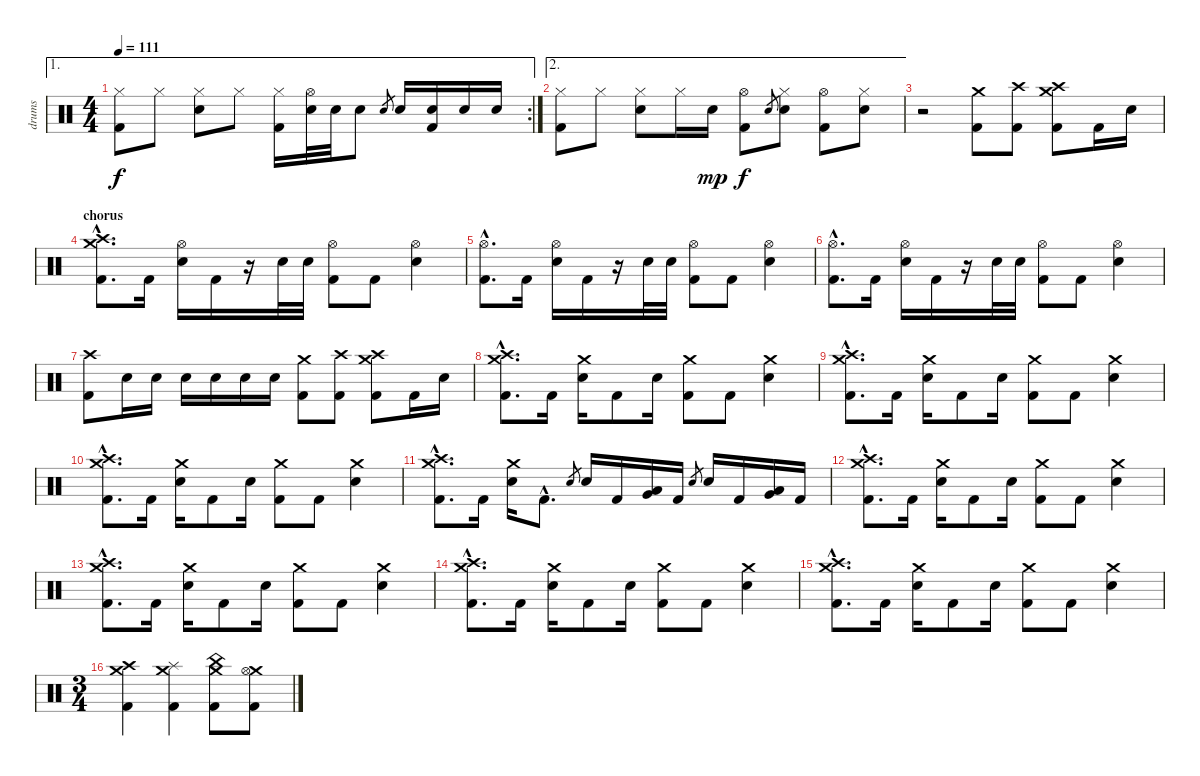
\track ("drums" "drums") {instrument percussion}
\staff {score}
\articulation defaults
\ae 1
\rc 2
\ts (4 4)
\tempo 111
\clef neutral
\ks c
("Hi-Hat (closed)" "Kick (hit) 2").8{dy f} "Hi-Hat (closed)".8 ("Hi-Hat (closed)" "Electric Snare (hit)").8 "Hi-Hat (closed)".8 ("Hi-Hat (closed)" "Kick (hit) 2").16 ("Hi-Hat (open)" "Electric Snare (hit)").32 "Electric Snare (hit)".32 "Electric Snare (hit)".8 "Electric Snare (hit)".8{gr} "Electric Snare (hit)".16 ("Electric Snare (hit)" "Kick (hit) 2").16 "Electric Snare (hit)".16 "Electric Snare (hit)".16 |
\ae 2
("Hi-Hat (closed)" "Kick (hit) 2").8 "Hi-Hat (closed)".8 ("Hi-Hat (closed)" "Electric Snare (hit)").8 "Hi-Hat (closed)".16 "Electric Snare (hit)".16{dy mp} ("Hi-Hat (open)" "Kick (hit) 2").8{dy f} "Electric Snare (hit)".8{gr} ("Hi-Hat (closed)" "Electric Snare (hit)").8 ("Hi-Hat (open)" "Kick (hit) 2").8 ("Hi-Hat (closed)" "Electric Snare (hit)").8 |
r.2 ("Crash medium (hit)" "Kick (hit) 2").8 ("Crash high (hit)" "Kick (hit) 2").8 ("Crash high (hit)" "Crash medium (hit)" "Kick (hit) 2").8 "Kick (hit) 2".16 "Electric Snare (hit)".16 |
\section ("" "chorus")
("Crash high (hit)"{hac} "Crash medium (hit)"{hac} "Kick (hit) 2"{hac}).8{d} "Kick (hit) 2".16 ("Hi-Hat (open)" "Electric Snare (hit)").16 "Kick (hit) 2".16 r.16 "Electric Snare (hit)".32 "Electric Snare (hit)".32 ("Hi-Hat (open)" "Kick (hit) 2").8 "Kick (hit) 2".8 ("Hi-Hat (open)" "Electric Snare (hit)").4 |
("Hi-Hat (open)"{hac} "Kick (hit) 2"{hac}).8{d} "Kick (hit) 2".16 ("Hi-Hat (open)" "Electric Snare (hit)").16 "Kick (hit) 2".16 r.16 "Electric Snare (hit)".32 "Electric Snare (hit)".32 ("Hi-Hat (open)" "Kick (hit) 2").8 "Kick (hit) 2".8 ("Hi-Hat (open)" "Electric Snare (hit)").4 |
("Hi-Hat (open)"{hac} "Kick (hit) 2"{hac}).8{d} "Kick (hit) 2".16 ("Hi-Hat (open)" "Electric Snare (hit)").16 "Kick (hit) 2".16 r.16 "Electric Snare (hit)".32 "Electric Snare (hit)".32 ("Hi-Hat (open)" "Kick (hit) 2").8 "Kick (hit) 2".8 ("Hi-Hat (open)" "Electric Snare (hit)").4 |
("Crash high (hit)" "Kick (hit) 2").8 "Electric Snare (hit)".16 "Electric Snare (hit)".16 "Electric Snare (hit)".16 "Electric Snare (hit)".16 "Electric Snare (hit)".16 "Electric Snare (hit)".16 ("Crash medium (hit)" "Kick (hit) 2").8 ("Crash high (hit)" "Kick (hit) 2").8 ("Crash high (hit)" "Crash medium (hit)" "Kick (hit) 2").8 "Kick (hit) 2".16 "Electric Snare (hit)".16 |
("Crash high (hit)"{hac} "Crash medium (hit)"{hac} "Kick (hit) 2"{hac}).8{d} "Kick (hit) 2".16 ("Crash medium (hit)" "Electric Snare (hit)").16 "Kick (hit) 2".8 "Electric Snare (hit)".16 ("Crash medium (hit)" "Kick (hit) 2").8 "Kick (hit) 2".8 ("Crash medium (hit)" "Electric Snare (hit)").4 |
("Crash medium (hit)"{hac} "Crash high (hit)"{hac} "Kick (hit) 2"{hac}).8{d} "Kick (hit) 2".16 ("Crash medium (hit)" "Electric Snare (hit)").16 "Kick (hit) 2".8 "Electric Snare (hit)".16 ("Crash medium (hit)" "Kick (hit) 2").8 "Kick (hit) 2".8 ("Crash medium (hit)" "Electric Snare (hit)").4 |
("Crash medium (hit)"{hac} "Crash high (hit)"{hac} "Kick (hit) 2"{hac}).8{d} "Kick (hit) 2".16 ("Crash medium (hit)" "Electric Snare (hit)").16 "Kick (hit) 2".8 "Electric Snare (hit)".16 ("Crash medium (hit)" "Kick (hit) 2").8 "Kick (hit) 2".8 ("Crash medium (hit)" "Electric Snare (hit)").4 |
("Crash medium (hit)"{hac} "Crash high (hit)"{hac} "Kick (hit) 2"{hac}).8{d} "Kick (hit) 2".16 ("Crash medium (hit)" "Electric Snare (hit)").16 "Kick (hit) 2"{hac}.8{d} "Electric Snare (hit)".8{gr} "Electric Snare (hit)".16 "Kick (hit) 2".16 ("Very Low Tom (hit)" "Low Tom (hit)").16 "Kick (hit) 2".16 "Electric Snare (hit)".8{gr} "Electric Snare (hit)".16 "Kick (hit) 2".16 ("Very Low Tom (hit)" "Low Tom (hit)").16 "Kick (hit) 2".16 |
("Crash high (hit)"{hac} "Crash medium (hit)"{hac} "Kick (hit) 2"{hac}).8{d} "Kick (hit) 2".16 ("Crash medium (hit)" "Electric Snare (hit)").16 "Kick (hit) 2".8 "Electric Snare (hit)".16 ("Crash medium (hit)" "Kick (hit) 2").8 "Kick (hit) 2".8 ("Crash medium (hit)" "Electric Snare (hit)").4 |
("Crash medium (hit)"{hac} "Crash high (hit)"{hac} "Kick (hit) 2"{hac}).8{d} "Kick (hit) 2".16 ("Crash medium (hit)" "Electric Snare (hit)").16 "Kick (hit) 2".8 "Electric Snare (hit)".16 ("Crash medium (hit)" "Kick (hit) 2").8 "Kick (hit) 2".8 ("Crash medium (hit)" "Electric Snare (hit)").4 |
("Crash medium (hit)"{hac} "Crash high (hit)"{hac} "Kick (hit) 2"{hac}).8{d} "Kick (hit) 2".16 ("Crash medium (hit)" "Electric Snare (hit)").16 "Kick (hit) 2".8 "Electric Snare (hit)".16 ("Crash medium (hit)" "Kick (hit) 2").8 "Kick (hit) 2".8 ("Crash medium (hit)" "Electric Snare (hit)").4 |
("Crash medium (hit)"{hac} "Crash high (hit)"{hac} "Kick (hit) 2"{hac}).8{d} "Kick (hit) 2".16 ("Crash medium (hit)" "Electric Snare (hit)").16 "Kick (hit) 2".8 "Electric Snare (hit)".16 ("Crash medium (hit)" "Kick (hit) 2").8 "Kick (hit) 2".8 ("Crash medium (hit)" "Electric Snare (hit)").4 |
\ts (3 4)
("Crash medium (hit)" "Crash high (hit)" "Kick (hit) 2").4 ("Crash medium (hit)" "Splash (hit)" "Kick (hit) 2").4 ("Crash medium (hit)" "China (hit)" "Kick (hit) 2").8 ("Crash medium (hit)" "Hi-Hat (open)" "Kick (hit) 2").8
